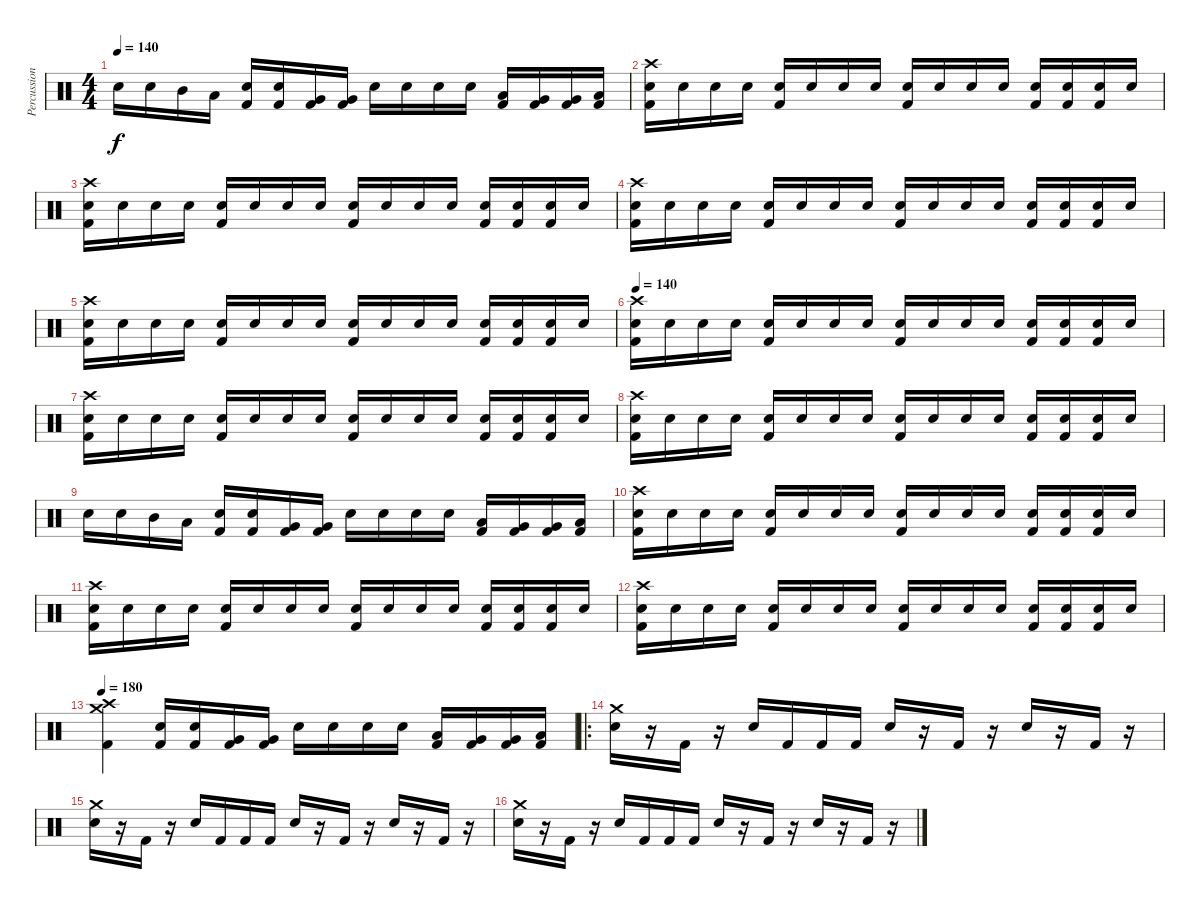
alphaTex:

\track ("Percussion" "Percussion") {instrument percussion}
\staff {score}
\articulation defaults
\ts (4 4)
\tempo 140
\clef neutral
\ks c "Electric Snare (hit)".16{dy f} "Electric Snare (hit)".16 "Mid Tom (hit)".16 "Low Tom (hit)".16
("Electric Snare (hit)" "Kick (hit) 2").16 ("Electric Snare (hit)" "Kick (hit) 2").16 ("Very Low Tom (hit)" "Kick (hit) 2").16 ("Very Low Tom (hit)" "Kick (hit) 2").16 "Electric Snare (hit)".16 "Electric Snare (hit)".16 "Electric Snare (hit)".16 "Electric Snare (hit)".16 ("Low Tom (hit)" "Kick (hit) 2").16 ("Very Low Tom (hit)" "Kick (hit) 2").16 ("Very Low Tom (hit)" "Kick (hit) 2").16 ("Low Floor Tom (hit)" "Kick (hit) 2").16 |
("Crash high (hit)" "Electric Snare (hit)" "Kick (hit) 2").16 "Electric Snare (hit)".16 "Electric Snare (hit)".16 "Electric Snare (hit)".16 ("Electric Snare (hit)" "Kick (hit) 2").16 "Electric Snare (hit)".16 "Electric Snare (hit)".16 "Electric Snare (hit)".16 ("Electric Snare (hit)" "Kick (hit) 2").16 "Electric Snare (hit)".16 "Electric Snare (hit)".16 "Electric Snare (hit)".16 ("Electric Snare (hit)" "Kick (hit) 2").16 ("Electric Snare (hit)" "Kick (hit) 2").16 ("Electric Snare (hit)" "Kick (hit) 2").16 "Electric Snare (hit)".16 |
("Crash high (hit)" "Electric Snare (hit)" "Kick (hit) 2").16 "Electric Snare (hit)".16 "Electric Snare (hit)".16 "Electric Snare (hit)".16 ("Electric Snare (hit)" "Kick (hit) 2").16 "Electric Snare (hit)".16 "Electric Snare (hit)".16 "Electric Snare (hit)".16 ("Electric Snare (hit)" "Kick (hit) 2").16 "Electric Snare (hit)".16 "Electric Snare (hit)".16 "Electric Snare (hit)".16 ("Electric Snare (hit)" "Kick (hit) 2").16 ("Electric Snare (hit)" "Kick (hit) 2").16 ("Electric Snare (hit)" "Kick (hit) 2").16 "Electric Snare (hit)".16 |
("Crash high (hit)" "Electric Snare (hit)" "Kick (hit) 2").16 "Electric Snare (hit)".16 "Electric Snare (hit)".16 "Electric Snare (hit)".16 ("Electric Snare (hit)" "Kick (hit) 2").16 "Electric Snare (hit)".16 "Electric Snare (hit)".16 "Electric Snare (hit)".16 ("Electric Snare (hit)" "Kick (hit) 2").16 "Electric Snare (hit)".16 "Electric Snare (hit)".16 "Electric Snare (hit)".16 ("Electric Snare (hit)" "Kick (hit) 2").16 ("Electric Snare (hit)" "Kick (hit) 2").16 ("Electric Snare (hit)" "Kick (hit) 2").16 "Electric Snare (hit)".16 |
("Crash high (hit)" "Electric Snare (hit)" "Kick (hit) 2").16 "Electric Snare (hit)".16 "Electric Snare (hit)".16 "Electric Snare (hit)".16 ("Electric Snare (hit)" "Kick (hit) 2").16 "Electric Snare (hit)".16 "Electric Snare (hit)".16 "Electric Snare (hit)".16 ("Electric Snare (hit)" "Kick (hit) 2").16 "Electric Snare (hit)".16 "Electric Snare (hit)".16 "Electric Snare (hit)".16 ("Electric Snare (hit)" "Kick (hit) 2").16 ("Electric Snare (hit)" "Kick (hit) 2").16 ("Electric Snare (hit)" "Kick (hit) 2").16 "Electric Snare (hit)".16 |
\tempo 140
("Crash high (hit)" "Electric Snare (hit)" "Kick (hit) 2").16 "Electric Snare (hit)".16 "Electric Snare (hit)".16 "Electric Snare (hit)".16 ("Electric Snare (hit)" "Kick (hit) 2").16 "Electric Snare (hit)".16 "Electric Snare (hit)".16 "Electric Snare (hit)".16 ("Electric Snare (hit)" "Kick (hit) 2").16 "Electric Snare (hit)".16 "Electric Snare (hit)".16 "Electric Snare (hit)".16 ("Electric Snare (hit)" "Kick (hit) 2").16 ("Electric Snare (hit)" "Kick (hit) 2").16 ("Electric Snare (hit)" "Kick (hit) 2").16 "Electric Snare (hit)".16 |
("Crash high (hit)" "Electric Snare (hit)" "Kick (hit) 2").16 "Electric Snare (hit)".16 "Electric Snare (hit)".16 "Electric Snare (hit)".16 ("Electric Snare (hit)" "Kick (hit) 2").16 "Electric Snare (hit)".16 "Electric Snare (hit)".16 "Electric Snare (hit)".16 ("Electric Snare (hit)" "Kick (hit) 2").16 "Electric Snare (hit)".16 "Electric Snare (hit)".16 "Electric Snare (hit)".16 ("Electric Snare (hit)" "Kick (hit) 2").16 ("Electric Snare (hit)" "Kick (hit) 2").16 ("Electric Snare (hit)" "Kick (hit) 2").16 "Electric Snare (hit)".16 |
("Crash high (hit)" "Electric Snare (hit)" "Kick (hit) 2").16 "Electric Snare (hit)".16 "Electric Snare (hit)".16 "Electric Snare (hit)".16 ("Electric Snare (hit)" "Kick (hit) 2").16 "Electric Snare (hit)".16 "Electric Snare (hit)".16 "Electric Snare (hit)".16 ("Electric Snare (hit)" "Kick (hit) 2").16 "Electric Snare (hit)".16 "Electric Snare (hit)".16 "Electric Snare (hit)".16 ("Electric Snare (hit)" "Kick (hit) 2").16 ("Electric Snare (hit)" "Kick (hit) 2").16 ("Electric Snare (hit)" "Kick (hit) 2").16 "Electric Snare (hit)".16 |
"Electric Snare (hit)".16 "Electric Snare (hit)".16 "Mid Tom (hit)".16 "Low Tom (hit)".16 ("Electric Snare (hit)" "Kick (hit) 2").16 ("Electric Snare (hit)" "Kick (hit) 2").16 ("Very Low Tom (hit)" "Kick (hit) 2").16 ("Very Low Tom (hit)" "Kick (hit) 2").16 "Electric Snare (hit)".16 "Electric Snare (hit)".16 "Electric Snare (hit)".16 "Electric Snare (hit)".16 ("Low Tom (hit)" "Kick (hit) 2").16 ("Very Low Tom (hit)" "Kick (hit) 2").16 ("Very Low Tom (hit)" "Kick (hit) 2").16 ("Low Floor Tom (hit)" "Kick (hit) 2").16 |
("Crash high (hit)" "Electric Snare (hit)" "Kick (hit) 2").16 "Electric Snare (hit)".16 "Electric Snare (hit)".16 "Electric Snare (hit)".16 ("Electric Snare (hit)" "Kick (hit) 2").16 "Electric Snare (hit)".16 "Electric Snare (hit)".16 "Electric Snare (hit)".16 ("Electric Snare (hit)" "Kick (hit) 2").16 "Electric Snare (hit)".16 "Electric Snare (hit)".16 "Electric Snare (hit)".16 ("Electric Snare (hit)" "Kick (hit) 2").16 ("Electric Snare (hit)" "Kick (hit) 2").16 ("Electric Snare (hit)" "Kick (hit) 2").16 "Electric Snare (hit)".16 |
("Crash high (hit)" "Electric Snare (hit)" "Kick (hit) 2").16 "Electric Snare (hit)".16 "Electric Snare (hit)".16 "Electric Snare (hit)".16 ("Electric Snare (hit)" "Kick (hit) 2").16 "Electric Snare (hit)".16 "Electric Snare (hit)".16 "Electric Snare (hit)".16 ("Electric Snare (hit)" "Kick (hit) 2").16 "Electric Snare (hit)".16 "Electric Snare (hit)".16 "Electric Snare (hit)".16 ("Electric Snare (hit)" "Kick (hit) 2").16 ("Electric Snare (hit)" "Kick (hit) 2").16 ("Electric Snare (hit)" "Kick (hit) 2").16 "Electric Snare (hit)".16 |
("Crash high (hit)" "Electric Snare (hit)" "Kick (hit) 2").16 "Electric Snare (hit)".16 "Electric Snare (hit)".16 "Electric Snare (hit)".16 ("Electric Snare (hit)" "Kick (hit) 2").16 "Electric Snare (hit)".16 "Electric Snare (hit)".16 "Electric Snare (hit)".16 ("Electric Snare (hit)" "Kick (hit) 2").16 "Electric Snare (hit)".16 "Electric Snare (hit)".16 "Electric Snare (hit)".16 ("Electric Snare (hit)" "Kick (hit) 2").16 ("Electric Snare (hit)" "Kick (hit) 2").16 ("Electric Snare (hit)" "Kick (hit) 2").16 "Electric Snare (hit)".16 |
\tempo 180
("Crash high (hit)" "Crash medium (hit)" "Kick (hit) 2").4 ("Electric Snare (hit)" "Kick (hit) 2").16 ("Electric Snare (hit)" "Kick (hit) 2").16 ("Very Low Tom (hit)" "Kick (hit) 2").16 ("Very Low Tom (hit)" "Kick (hit) 2").16 "Electric Snare (hit)".16 "Electric Snare (hit)".16 "Electric Snare (hit)".16 "Electric Snare (hit)".16 ("Low Tom (hit)" "Kick (hit) 2").16 ("Very Low Tom (hit)" "Kick (hit) 2").16 ("Very Low Tom (hit)" "Kick (hit) 2").16 ("Low Floor Tom (hit)" "Kick (hit) 2").16 |
\ro
("Crash medium (hit)" "Electric Snare (hit)").16 r.16 "Kick (hit) 2".16 r.16 "Electric Snare (hit)".16 "Kick (hit) 2".16 "Kick (hit) 2".16 "Kick (hit) 2".16 "Electric Snare (hit)".16 r.16 "Kick (hit) 2".16 r.16 "Electric Snare (hit)".16 r.16 "Kick (hit) 2".16 r.16 |
("Crash medium (hit)" "Electric Snare (hit)").16 r.16 "Kick (hit) 2".16 r.16 "Electric Snare (hit)".16 "Kick (hit) 2".16 "Kick (hit) 2".16 "Kick (hit) 2".16 "Electric Snare (hit)".16 r.16 "Kick (hit) 2".16 r.16 "Electric Snare (hit)".16 r.16 "Kick (hit) 2".16 r.16 |
("Crash medium (hit)" "Electric Snare (hit)").16 r.16 "Kick (hit) 2".16 r.16 "Electric Snare (hit)".16 "Kick (hit) 2".16 "Kick (hit) 2".16 "Kick (hit) 2".16 "Electric Snare (hit)".16 r.16 "Kick (hit) 2".16 r.16 "Electric Snare (hit)".16 r.16 "Kick (hit) 2".16 r.16
